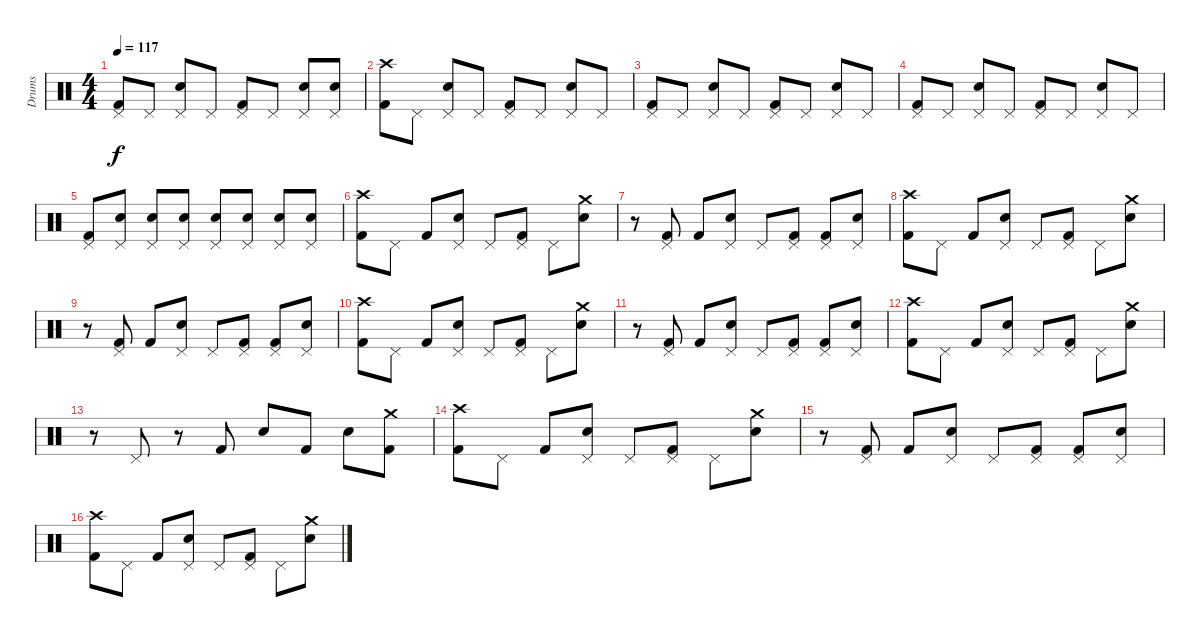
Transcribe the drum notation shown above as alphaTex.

\track ("Drums" "Drums") {instrument percussion}
\staff {score}
\articulation defaults
\ts (4 4)
\tempo 117
\clef neutral
\ks c
("Pedal Hi-Hat (hit)" "Kick (hit) 2").8{dy f} "Pedal Hi-Hat (hit)".8 ("Pedal Hi-Hat (hit)" "Snare (hit) 2").8 "Pedal Hi-Hat (hit)".8 ("Pedal Hi-Hat (hit)" "Kick (hit) 2").8 "Pedal Hi-Hat (hit)".8 ("Pedal Hi-Hat (hit)" "Snare (hit) 2").8 ("Pedal Hi-Hat (hit)" "Snare (hit) 2").8 |
("Crash high (hit)" "Kick (hit) 2").8 "Pedal Hi-Hat (hit)".8 ("Pedal Hi-Hat (hit)" "Snare (hit) 2").8 "Pedal Hi-Hat (hit)".8 ("Pedal Hi-Hat (hit)" "Kick (hit) 2").8 "Pedal Hi-Hat (hit)".8 ("Pedal Hi-Hat (hit)" "Snare (hit) 2").8 "Pedal Hi-Hat (hit)".8 |
("Pedal Hi-Hat (hit)" "Kick (hit) 2").8 "Pedal Hi-Hat (hit)".8 ("Pedal Hi-Hat (hit)" "Snare (hit) 2").8 "Pedal Hi-Hat (hit)".8 ("Pedal Hi-Hat (hit)" "Kick (hit) 2").8 "Pedal Hi-Hat (hit)".8 ("Pedal Hi-Hat (hit)" "Snare (hit) 2").8 "Pedal Hi-Hat (hit)".8 |
("Pedal Hi-Hat (hit)" "Kick (hit) 2").8 "Pedal Hi-Hat (hit)".8 ("Pedal Hi-Hat (hit)" "Snare (hit) 2").8 "Pedal Hi-Hat (hit)".8 ("Pedal Hi-Hat (hit)" "Kick (hit) 2").8 "Pedal Hi-Hat (hit)".8 ("Pedal Hi-Hat (hit)" "Snare (hit) 2").8 "Pedal Hi-Hat (hit)".8 |
("Pedal Hi-Hat (hit)" "Kick (hit) 2").8 ("Pedal Hi-Hat (hit)" "Snare (hit) 2").8 ("Pedal Hi-Hat (hit)" "Snare (hit) 2").8 ("Pedal Hi-Hat (hit)" "Snare (hit) 2").8 ("Pedal Hi-Hat (hit)" "Snare (hit) 2").8 ("Pedal Hi-Hat (hit)" "Snare (hit) 2").8 ("Pedal Hi-Hat (hit)" "Snare (hit) 2").8 ("Pedal Hi-Hat (hit)" "Snare (hit) 2").8 |
("Crash high (hit)" "Kick (hit) 2").8 "Pedal Hi-Hat (hit)".8 "Kick (hit) 2".8 ("Pedal Hi-Hat (hit)" "Snare (hit) 2").8 "Pedal Hi-Hat (hit)".8 ("Pedal Hi-Hat (hit)" "Kick (hit) 2").8 "Pedal Hi-Hat (hit)".8 ("Crash medium (hit)" "Snare (hit) 2").8 |
r.8 ("Pedal Hi-Hat (hit)" "Kick (hit) 2").8 "Kick (hit) 2".8 ("Pedal Hi-Hat (hit)" "Snare (hit) 2").8 "Pedal Hi-Hat (hit)".8 ("Pedal Hi-Hat (hit)" "Kick (hit) 2").8 ("Pedal Hi-Hat (hit)" "Kick (hit) 2").8 ("Pedal Hi-Hat (hit)" "Snare (hit) 2").8 |
("Crash high (hit)" "Kick (hit) 2").8 "Pedal Hi-Hat (hit)".8 "Kick (hit) 2".8 ("Pedal Hi-Hat (hit)" "Snare (hit) 2").8 "Pedal Hi-Hat (hit)".8 ("Pedal Hi-Hat (hit)" "Kick (hit) 2").8 "Pedal Hi-Hat (hit)".8 ("Crash medium (hit)" "Snare (hit) 2").8 |
r.8 ("Pedal Hi-Hat (hit)" "Kick (hit) 2").8 "Kick (hit) 2".8 ("Pedal Hi-Hat (hit)" "Snare (hit) 2").8 "Pedal Hi-Hat (hit)".8 ("Pedal Hi-Hat (hit)" "Kick (hit) 2").8 ("Pedal Hi-Hat (hit)" "Kick (hit) 2").8 ("Pedal Hi-Hat (hit)" "Snare (hit) 2").8 |
("Crash high (hit)" "Kick (hit) 2").8 "Pedal Hi-Hat (hit)".8 "Kick (hit) 2".8 ("Pedal Hi-Hat (hit)" "Snare (hit) 2").8 "Pedal Hi-Hat (hit)".8 ("Pedal Hi-Hat (hit)" "Kick (hit) 2").8 "Pedal Hi-Hat (hit)".8 ("Crash medium (hit)" "Snare (hit) 2").8 |
r.8 ("Pedal Hi-Hat (hit)" "Kick (hit) 2").8 "Kick (hit) 2".8 ("Pedal Hi-Hat (hit)" "Snare (hit) 2").8 "Pedal Hi-Hat (hit)".8 ("Pedal Hi-Hat (hit)" "Kick (hit) 2").8 ("Pedal Hi-Hat (hit)" "Kick (hit) 2").8 ("Pedal Hi-Hat (hit)" "Snare (hit) 2").8 |
("Crash high (hit)" "Kick (hit) 2").8 "Pedal Hi-Hat (hit)".8 "Kick (hit) 2".8 ("Pedal Hi-Hat (hit)" "Snare (hit) 2").8 "Pedal Hi-Hat (hit)".8 ("Pedal Hi-Hat (hit)" "Kick (hit) 2").8 "Pedal Hi-Hat (hit)".8 ("Crash medium (hit)" "Snare (hit) 2").8 |
r.8 "Pedal Hi-Hat (hit)".8 r.8 "Kick (hit) 2".8 "Snare (hit) 2".8 "Kick (hit) 2".8 "Snare (hit) 2".8 ("Crash medium (hit)" "Kick (hit) 2").8 |
("Crash high (hit)" "Kick (hit) 2").8 "Pedal Hi-Hat (hit)".8 "Kick (hit) 2".8 ("Pedal Hi-Hat (hit)" "Snare (hit) 2").8 "Pedal Hi-Hat (hit)".8 ("Pedal Hi-Hat (hit)" "Kick (hit) 2").8 "Pedal Hi-Hat (hit)".8 ("Crash medium (hit)" "Snare (hit) 2").8 |
r.8 ("Pedal Hi-Hat (hit)" "Kick (hit) 2").8 "Kick (hit) 2".8 ("Pedal Hi-Hat (hit)" "Snare (hit) 2").8 "Pedal Hi-Hat (hit)".8 ("Pedal Hi-Hat (hit)" "Kick (hit) 2").8 ("Pedal Hi-Hat (hit)" "Kick (hit) 2").8 ("Pedal Hi-Hat (hit)" "Snare (hit) 2").8 |
("Crash high (hit)" "Kick (hit) 2").8 "Pedal Hi-Hat (hit)".8 "Kick (hit) 2".8 ("Pedal Hi-Hat (hit)" "Snare (hit) 2").8 "Pedal Hi-Hat (hit)".8 ("Pedal Hi-Hat (hit)" "Kick (hit) 2").8 "Pedal Hi-Hat (hit)".8 ("Crash medium (hit)" "Snare (hit) 2").8
